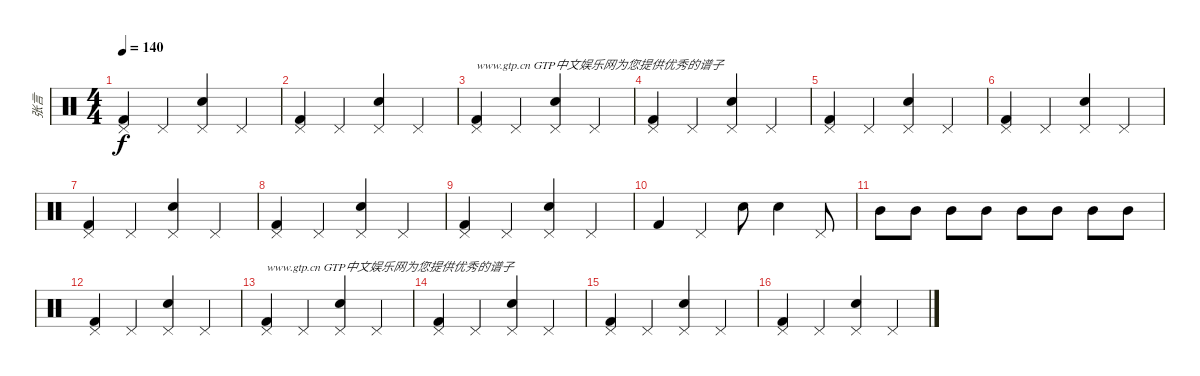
\track ("张言" "张言") {instrument percussion}
\staff {score}
\articulation defaults
\ts (4 4)
\tempo 140
\clef neutral
\ks c
("Kick (hit) 2" "Pedal Hi-Hat (hit)").4{dy f} "Pedal Hi-Hat (hit)".4 ("Snare (hit) 2" "Pedal Hi-Hat (hit)").4 "Pedal Hi-Hat (hit)".4 |
("Kick (hit) 2" "Pedal Hi-Hat (hit)").4 "Pedal Hi-Hat (hit)".4 ("Snare (hit) 2" "Pedal Hi-Hat (hit)").4 "Pedal Hi-Hat (hit)".4 |
("Kick (hit) 2" "Pedal Hi-Hat (hit)").4{txt "www.gtp.cn GTP中文娱乐网为您提供优秀的谱子"} "Pedal Hi-Hat (hit)".4 ("Snare (hit) 2" "Pedal Hi-Hat (hit)").4 "Pedal Hi-Hat (hit)".4 |
("Kick (hit) 2" "Pedal Hi-Hat (hit)").4 "Pedal Hi-Hat (hit)".4 ("Snare (hit) 2" "Pedal Hi-Hat (hit)").4 "Pedal Hi-Hat (hit)".4 |
("Kick (hit) 2" "Pedal Hi-Hat (hit)").4 "Pedal Hi-Hat (hit)".4 ("Snare (hit) 2" "Pedal Hi-Hat (hit)").4 "Pedal Hi-Hat (hit)".4 |
("Kick (hit) 2" "Pedal Hi-Hat (hit)").4 "Pedal Hi-Hat (hit)".4 ("Snare (hit) 2" "Pedal Hi-Hat (hit)").4 "Pedal Hi-Hat (hit)".4 |
("Kick (hit) 2" "Pedal Hi-Hat (hit)").4 "Pedal Hi-Hat (hit)".4 ("Snare (hit) 2" "Pedal Hi-Hat (hit)").4 "Pedal Hi-Hat (hit)".4 |
("Kick (hit) 2" "Pedal Hi-Hat (hit)").4 "Pedal Hi-Hat (hit)".4 ("Snare (hit) 2" "Pedal Hi-Hat (hit)").4 "Pedal Hi-Hat (hit)".4 |
("Kick (hit) 2" "Pedal Hi-Hat (hit)").4 "Pedal Hi-Hat (hit)".4 ("Snare (hit) 2" "Pedal Hi-Hat (hit)").4 "Pedal Hi-Hat (hit)".4 |
"Kick (hit) 2".4 "Pedal Hi-Hat (hit)".4 "Snare (hit) 2".8 "Snare (hit) 2".4 "Pedal Hi-Hat (hit)".8 |
"Mid Tom (hit)".8 "Mid Tom (hit)".8 "Mid Tom (hit)".8 "Mid Tom (hit)".8 "Mid Tom (hit)".8 "Mid Tom (hit)".8 "Mid Tom (hit)".8 "Mid Tom (hit)".8 |
("Kick (hit) 2" "Pedal Hi-Hat (hit)").4 "Pedal Hi-Hat (hit)".4 ("Snare (hit) 2" "Pedal Hi-Hat (hit)").4 "Pedal Hi-Hat (hit)".4 |
("Kick (hit) 2" "Pedal Hi-Hat (hit)").4{txt "www.gtp.cn GTP中文娱乐网为您提供优秀的谱子"} "Pedal Hi-Hat (hit)".4 ("Snare (hit) 2" "Pedal Hi-Hat (hit)").4 "Pedal Hi-Hat (hit)".4 |
("Kick (hit) 2" "Pedal Hi-Hat (hit)").4 "Pedal Hi-Hat (hit)".4 ("Snare (hit) 2" "Pedal Hi-Hat (hit)").4 "Pedal Hi-Hat (hit)".4 |
("Kick (hit) 2" "Pedal Hi-Hat (hit)").4 "Pedal Hi-Hat (hit)".4 ("Snare (hit) 2" "Pedal Hi-Hat (hit)").4 "Pedal Hi-Hat (hit)".4 |
("Kick (hit) 2" "Pedal Hi-Hat (hit)").4 "Pedal Hi-Hat (hit)".4 ("Snare (hit) 2" "Pedal Hi-Hat (hit)").4 "Pedal Hi-Hat (hit)".4
